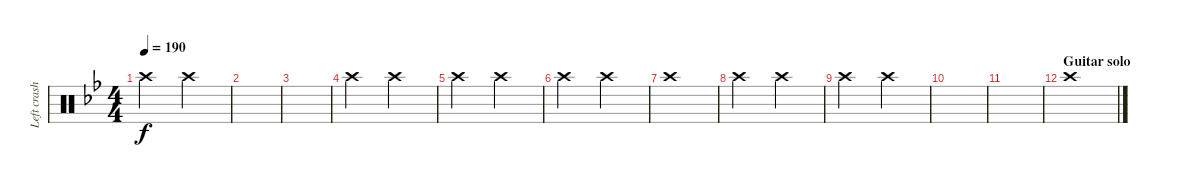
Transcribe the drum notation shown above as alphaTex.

\track ("Left crash" "Left crash") {instrument percussion}
\staff {score}
\articulation defaults
\ts (4 4)
\tempo 190
\clef neutral
\ks bb "Crash high (hit)".2{dy f} "Crash high (hit)".2
|
|
|
"Crash high (hit)".2 "Crash high (hit)".2 |
"Crash high (hit)".2 "Crash high (hit)".2 |
"Crash high (hit)".2 "Crash high (hit)".2 |
"Crash high (hit)".1 |
"Crash high (hit)".2 "Crash high (hit)".2 |
"Crash high (hit)".2 "Crash high (hit)".2 |
|
|
\section ("" "Guitar solo")
"Crash high (hit)".1
